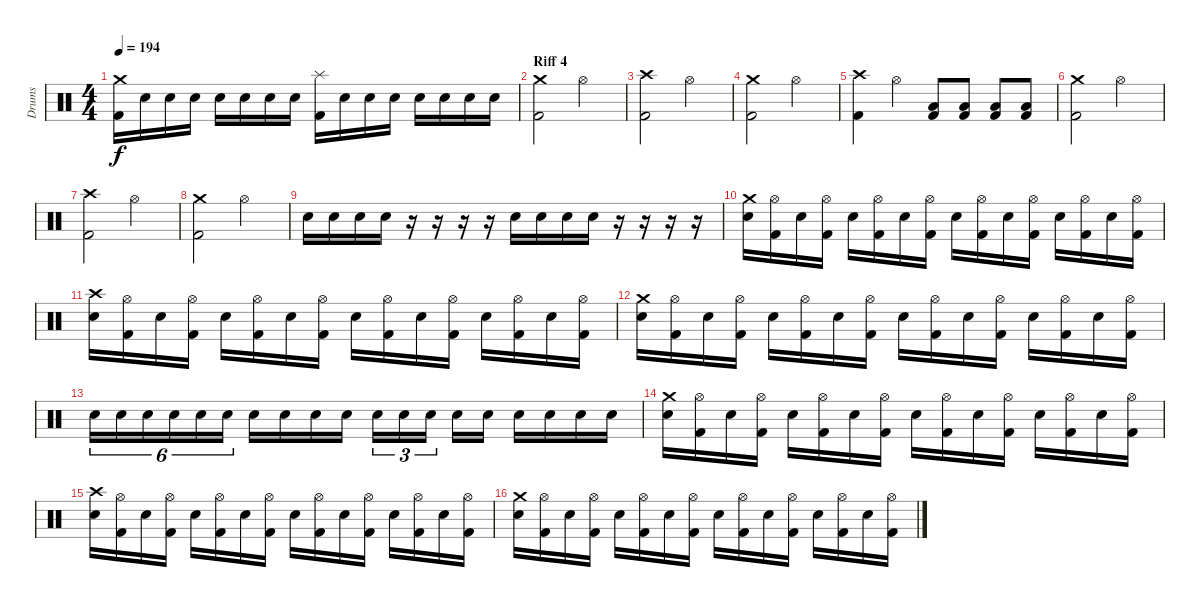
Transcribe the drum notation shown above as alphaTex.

\track ("Drums" "Drums") {instrument percussion}
\staff {score}
\articulation defaults
\ts (4 4)
\tempo 194
\clef neutral
\ks c
("Crash medium (hit)" "Kick (hit) 2").16{dy f} "Electric Snare (hit)".16 "Electric Snare (hit)".16 "Electric Snare (hit)".16 "Electric Snare (hit)".16 "Electric Snare (hit)".16 "Electric Snare (hit)".16 "Electric Snare (hit)".16 ("Splash (hit)" "Kick (hit) 2").16 "Electric Snare (hit)".16 "Electric Snare (hit)".16 "Electric Snare (hit)".16 "Electric Snare (hit)".16 "Electric Snare (hit)".16 "Electric Snare (hit)".16 "Electric Snare (hit)".16 |
\section ("" "Riff 4")
("Crash medium (hit)" "Kick (hit) 2").2 "Hi-Hat (open)".2 |
("Crash high (hit)" "Kick (hit) 2").2 "Hi-Hat (open)".2 |
("Crash medium (hit)" "Kick (hit) 2").2 "Hi-Hat (open)".2 |
("Crash high (hit)" "Kick (hit) 2").4 "Hi-Hat (open)".4 ("Low Tom (hit)" "Kick (hit) 2").8 ("Low Tom (hit)" "Kick (hit) 2").8 ("Low Tom (hit)" "Kick (hit) 2").8 ("Low Tom (hit)" "Kick (hit) 2").8 |
("Crash medium (hit)" "Kick (hit) 2").2 "Hi-Hat (open)".2 |
("Crash high (hit)" "Kick (hit) 2").2 "Hi-Hat (open)".2 |
("Crash medium (hit)" "Kick (hit) 2").2 "Hi-Hat (open)".2 |
"Electric Snare (hit)".16 "Electric Snare (hit)".16 "Electric Snare (hit)".16 "Electric Snare (hit)".16 r.16 r.16 r.16 r.16 "Electric Snare (hit)".16 "Electric Snare (hit)".16 "Electric Snare (hit)".16 "Electric Snare (hit)".16 r.16 r.16 r.16 r.16 |
("Crash medium (hit)" "Electric Snare (hit)").16 ("Hi-Hat (open)" "Kick (hit) 2").16 "Electric Snare (hit)".16 ("Hi-Hat (open)" "Kick (hit) 2").16 "Electric Snare (hit)".16 ("Hi-Hat (open)" "Kick (hit) 2").16 "Electric Snare (hit)".16 ("Hi-Hat (open)" "Kick (hit) 2").16 "Electric Snare (hit)".16 ("Hi-Hat (open)" "Kick (hit) 2").16 "Electric Snare (hit)".16 ("Hi-Hat (open)" "Kick (hit) 2").16 "Electric Snare (hit)".16 ("Hi-Hat (open)" "Kick (hit) 2").16 "Electric Snare (hit)".16 ("Hi-Hat (open)" "Kick (hit) 2").16 |
("Crash high (hit)" "Electric Snare (hit)").16 ("Hi-Hat (open)" "Kick (hit) 2").16 "Electric Snare (hit)".16 ("Hi-Hat (open)" "Kick (hit) 2").16 "Electric Snare (hit)".16 ("Hi-Hat (open)" "Kick (hit) 2").16 "Electric Snare (hit)".16 ("Hi-Hat (open)" "Kick (hit) 2").16 "Electric Snare (hit)".16 ("Hi-Hat (open)" "Kick (hit) 2").16 "Electric Snare (hit)".16 ("Hi-Hat (open)" "Kick (hit) 2").16 "Electric Snare (hit)".16 ("Hi-Hat (open)" "Kick (hit) 2").16 "Electric Snare (hit)".16 ("Hi-Hat (open)" "Kick (hit) 2").16 |
("Crash medium (hit)" "Electric Snare (hit)").16 ("Hi-Hat (open)" "Kick (hit) 2").16 "Electric Snare (hit)".16 ("Hi-Hat (open)" "Kick (hit) 2").16 "Electric Snare (hit)".16 ("Hi-Hat (open)" "Kick (hit) 2").16 "Electric Snare (hit)".16 ("Hi-Hat (open)" "Kick (hit) 2").16 "Electric Snare (hit)".16 ("Hi-Hat (open)" "Kick (hit) 2").16 "Electric Snare (hit)".16 ("Hi-Hat (open)" "Kick (hit) 2").16 "Electric Snare (hit)".16 ("Hi-Hat (open)" "Kick (hit) 2").16 "Electric Snare (hit)".16 ("Hi-Hat (open)" "Kick (hit) 2").16 |
"Electric Snare (hit)".16{tu (6 4)} "Electric Snare (hit)".16{tu (6 4)} "Electric Snare (hit)".16{tu (6 4)} "Electric Snare (hit)".16{tu (6 4)} "Electric Snare (hit)".16{tu (6 4)} "Electric Snare (hit)".16{tu (6 4)} "Electric Snare (hit)".16 "Electric Snare (hit)".16 "Electric Snare (hit)".16 "Electric Snare (hit)".16 "Electric Snare (hit)".16{tu (3 2)} "Electric Snare (hit)".16{tu (3 2)} "Electric Snare (hit)".16{tu (3 2)} "Electric Snare (hit)".16 "Electric Snare (hit)".16 "Electric Snare (hit)".16 "Electric Snare (hit)".16 "Electric Snare (hit)".16 "Electric Snare (hit)".16 |
("Crash medium (hit)" "Electric Snare (hit)").16 ("Hi-Hat (open)" "Kick (hit) 2").16 "Electric Snare (hit)".16 ("Hi-Hat (open)" "Kick (hit) 2").16 "Electric Snare (hit)".16 ("Hi-Hat (open)" "Kick (hit) 2").16 "Electric Snare (hit)".16 ("Hi-Hat (open)" "Kick (hit) 2").16 "Electric Snare (hit)".16 ("Hi-Hat (open)" "Kick (hit) 2").16 "Electric Snare (hit)".16 ("Hi-Hat (open)" "Kick (hit) 2").16 "Electric Snare (hit)".16 ("Hi-Hat (open)" "Kick (hit) 2").16 "Electric Snare (hit)".16 ("Hi-Hat (open)" "Kick (hit) 2").16 |
("Crash high (hit)" "Electric Snare (hit)").16 ("Hi-Hat (open)" "Kick (hit) 2").16 "Electric Snare (hit)".16 ("Hi-Hat (open)" "Kick (hit) 2").16 "Electric Snare (hit)".16 ("Hi-Hat (open)" "Kick (hit) 2").16 "Electric Snare (hit)".16 ("Hi-Hat (open)" "Kick (hit) 2").16 "Electric Snare (hit)".16 ("Hi-Hat (open)" "Kick (hit) 2").16 "Electric Snare (hit)".16 ("Hi-Hat (open)" "Kick (hit) 2").16 "Electric Snare (hit)".16 ("Hi-Hat (open)" "Kick (hit) 2").16 "Electric Snare (hit)".16 ("Hi-Hat (open)" "Kick (hit) 2").16 |
("Crash medium (hit)" "Electric Snare (hit)").16 ("Hi-Hat (open)" "Kick (hit) 2").16 "Electric Snare (hit)".16 ("Hi-Hat (open)" "Kick (hit) 2").16 "Electric Snare (hit)".16 ("Hi-Hat (open)" "Kick (hit) 2").16 "Electric Snare (hit)".16 ("Hi-Hat (open)" "Kick (hit) 2").16 "Electric Snare (hit)".16 ("Hi-Hat (open)" "Kick (hit) 2").16 "Electric Snare (hit)".16 ("Hi-Hat (open)" "Kick (hit) 2").16 "Electric Snare (hit)".16 ("Hi-Hat (open)" "Kick (hit) 2").16 "Electric Snare (hit)".16 ("Hi-Hat (open)" "Kick (hit) 2").16
